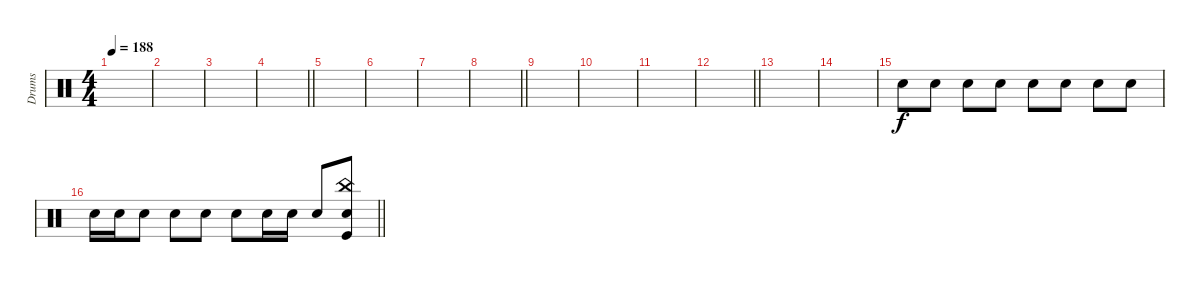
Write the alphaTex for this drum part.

\track ("Drums" "Drums") {instrument percussion}
\staff
\articulation defaults
\ts (4 4)
\tempo 188
\clef neutral
\ks c
|
|
|
\barLineRight lightlight
|
|
|
|
\barLineRight lightlight
|
|
|
|
\barLineRight lightlight
|
|
|
"Electric Snare (hit)".8 "Electric Snare (hit)".8 "Electric Snare (hit)".8 "Electric Snare (hit)".8 "Electric Snare (hit)".8 "Electric Snare (hit)".8 "Electric Snare (hit)".8 "Electric Snare (hit)".8 |
\barLineRight lightlight "Electric Snare (hit)".16 "Electric Snare (hit)".16 "Electric Snare (hit)".8 "Electric Snare (hit)".8 "Electric Snare (hit)".8 "Electric Snare (hit)".8 "Electric Snare (hit)".16 "Electric Snare (hit)".16 "Electric Snare (hit)".8
("China (hit)" "Electric Snare (hit)" "Kick (hit)").8
